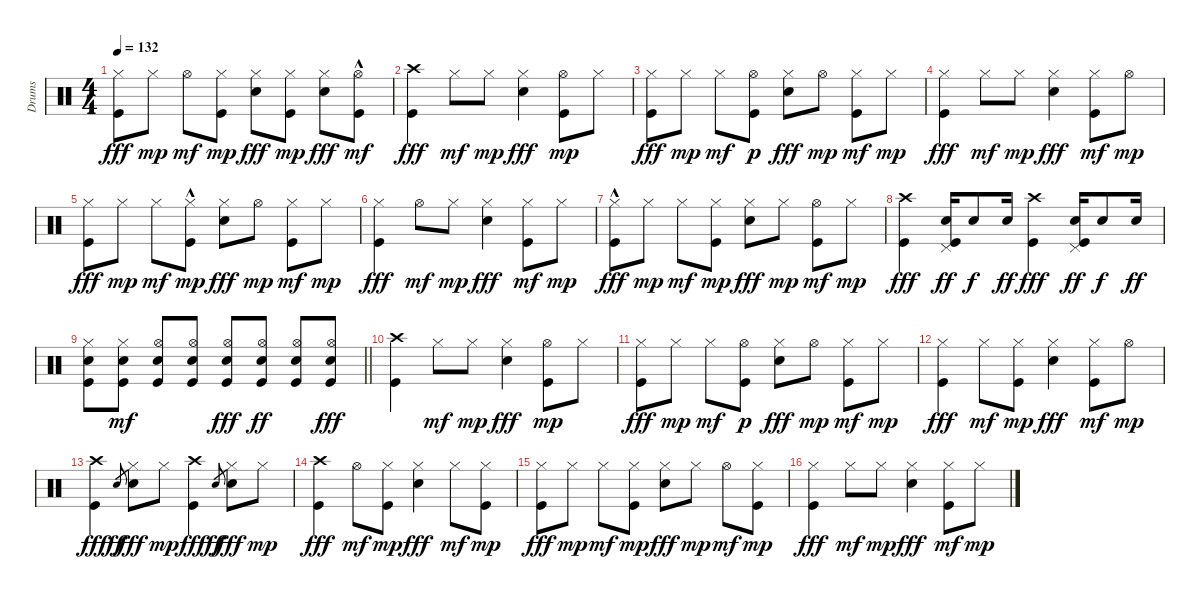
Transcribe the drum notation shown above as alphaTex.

\track ("Drums" "Drums") {instrument percussion}
\staff {score}
\articulation defaults
\ts (4 4)
\tempo 132
\clef neutral
\ks c
("Hi-Hat (closed)" "Kick (hit)").8{dy fff} "Hi-Hat (closed)".8{dy mp} "Hi-Hat (open)".8{dy mf} ("Hi-Hat (closed)" "Kick (hit)").8{dy mp} ("Hi-Hat (closed)" "Snare (hit) 2").8{dy fff} ("Hi-Hat (closed)" "Kick (hit)").8{dy mp} ("Hi-Hat (closed)" "Snare (hit) 2").8{dy fff} ("Hi-Hat (open)"{hac} "Kick (hit)").8{dy mf} |
("Crash high (hit)" "Kick (hit)").4{dy fff} "Hi-Hat (closed)".8{dy mf} "Hi-Hat (closed)".8{dy mp} ("Hi-Hat (closed)" "Snare (hit) 2").4{dy fff} ("Hi-Hat (open)" "Kick (hit)").8{dy mp} "Hi-Hat (closed)".8 |
("Hi-Hat (closed)" "Kick (hit)").8{dy fff} "Hi-Hat (closed)".8{dy mp} "Hi-Hat (closed)".8{dy mf} ("Hi-Hat (open)" "Kick (hit)").8{dy p} ("Hi-Hat (closed)" "Snare (hit) 2").8{dy fff} "Hi-Hat (open)".8{dy mp} ("Hi-Hat (closed)" "Kick (hit)").8{dy mf} "Hi-Hat (closed)".8{dy mp} |
("Hi-Hat (closed)" "Kick (hit)").4{dy fff} "Hi-Hat (closed)".8{dy mf} "Hi-Hat (closed)".8{dy mp} ("Hi-Hat (closed)" "Snare (hit) 2").4{dy fff} ("Hi-Hat (closed)" "Kick (hit)").8{dy mf} "Hi-Hat (open)".8{dy mp} |
("Hi-Hat (closed)" "Kick (hit)").8{dy fff} "Hi-Hat (closed)".8{dy mp} "Hi-Hat (closed)".8{dy mf} ("Hi-Hat (closed)" "Kick (hit)"{hac}).8{dy mp} ("Hi-Hat (closed)" "Snare (hit) 2").8{dy fff} "Hi-Hat (open)".8{dy mp} ("Hi-Hat (closed)" "Kick (hit)").8{dy mf} "Hi-Hat (closed)".8{dy mp} |
("Hi-Hat (closed)" "Kick (hit)").4{dy fff} "Hi-Hat (open)".8{dy mf} "Hi-Hat (closed)".8{dy mp} ("Hi-Hat (closed)" "Snare (hit) 2").4{dy fff} ("Hi-Hat (closed)" "Kick (hit)").8{dy mf} "Hi-Hat (closed)".8{dy mp} |
("Hi-Hat (closed)" "Kick (hit)"{hac}).8{dy fff} "Hi-Hat (closed)".8{dy mp} "Hi-Hat (closed)".8{dy mf} ("Hi-Hat (closed)" "Kick (hit)").8{dy mp} ("Hi-Hat (closed)" "Snare (hit) 2").8{dy fff} "Hi-Hat (closed)".8{dy mp} ("Hi-Hat (open)" "Kick (hit)").8{dy mf} "Hi-Hat (closed)".8{dy mp} |
("Crash high (hit)" "Kick (hit)").4{dy fff} ("Pedal Hi-Hat (hit)" "Snare (hit) 2" "Kick (hit)").16{dy ff} "Snare (hit) 2".8{dy f} "Snare (hit) 2".16{dy ff} ("Crash high (hit)" "Kick (hit)").4{dy fff} ("Pedal Hi-Hat (hit)" "Snare (hit) 2" "Kick (hit)").16{dy ff} "Snare (hit) 2".8{dy f} "Snare (hit) 2".16{dy ff} |
\barLineRight lightlight
("Hi-Hat (closed)" "Snare (hit) 2" "Kick (hit)").8 ("Hi-Hat (closed)" "Snare (hit) 2" "Kick (hit)").8{dy mf} ("Hi-Hat (open)" "Snare (hit) 2" "Kick (hit)").8 ("Hi-Hat (open)" "Snare (hit) 2" "Kick (hit)").8 ("Hi-Hat (open)" "Snare (hit) 2" "Kick (hit)").8{dy fff} ("Hi-Hat (open)" "Snare (hit) 2" "Kick (hit)").8{dy ff} ("Hi-Hat (open)" "Snare (hit) 2" "Kick (hit)").8 ("Hi-Hat (open)" "Snare (hit) 2" "Kick (hit)").8{dy fff} |
("Crash high (hit)" "Kick (hit)").4 "Hi-Hat (closed)".8{dy mf} "Hi-Hat (closed)".8{dy mp} ("Hi-Hat (closed)" "Snare (hit) 2").4{dy fff} ("Hi-Hat (open)" "Kick (hit)").8{dy mp} "Hi-Hat (closed)".8 |
("Hi-Hat (closed)" "Kick (hit)").8{dy fff} "Hi-Hat (closed)".8{dy mp} "Hi-Hat (closed)".8{dy mf} ("Hi-Hat (open)" "Kick (hit)").8{dy p} ("Hi-Hat (closed)" "Snare (hit) 2").8{dy fff} "Hi-Hat (open)".8{dy mp} ("Hi-Hat (closed)" "Kick (hit)").8{dy mf} "Hi-Hat (closed)".8{dy mp} |
("Hi-Hat (closed)" "Kick (hit)").4{dy fff} "Hi-Hat (closed)".8{dy mf} ("Hi-Hat (closed)" "Kick (hit)").8{dy mp} ("Hi-Hat (closed)" "Snare (hit) 2").4{dy fff} ("Hi-Hat (closed)" "Kick (hit)").8{dy mf} "Hi-Hat (open)".8{dy mp} |
("Crash high (hit)" "Kick (hit)").4{dy fff} "Snare (hit) 2".8{gr dy ff} ("Hi-Hat (closed)" "Snare (hit) 2").8{dy fff} "Hi-Hat (closed)".8{dy mp} ("Crash high (hit)" "Kick (hit)").4{dy fff} "Snare (hit) 2".8{gr dy ff} ("Hi-Hat (closed)" "Snare (hit) 2").8{dy fff} "Hi-Hat (closed)".8{dy mp} |
("Crash high (hit)" "Kick (hit)").4{dy fff} "Hi-Hat (open)".8{dy mf} ("Hi-Hat (closed)" "Kick (hit)").8{dy mp} ("Hi-Hat (closed)" "Snare (hit) 2").4{dy fff} "Hi-Hat (closed)".8{dy mf} ("Hi-Hat (closed)" "Kick (hit)").8{dy mp} |
("Hi-Hat (closed)" "Kick (hit)").8{dy fff} "Hi-Hat (closed)".8{dy mp} "Hi-Hat (closed)".8{dy mf} ("Hi-Hat (closed)" "Kick (hit)").8{dy mp} ("Hi-Hat (closed)" "Snare (hit) 2").8{dy fff} "Hi-Hat (closed)".8{dy mp} "Hi-Hat (open)".8{dy mf} ("Hi-Hat (closed)" "Kick (hit)").8{dy mp} |
("Hi-Hat (closed)" "Kick (hit)").4{dy fff} "Hi-Hat (closed)".8{dy mf} "Hi-Hat (closed)".8{dy mp} ("Hi-Hat (closed)" "Snare (hit) 2").4{dy fff} ("Hi-Hat (closed)" "Kick (hit)").8{dy mf} "Hi-Hat (closed)".8{dy mp}
